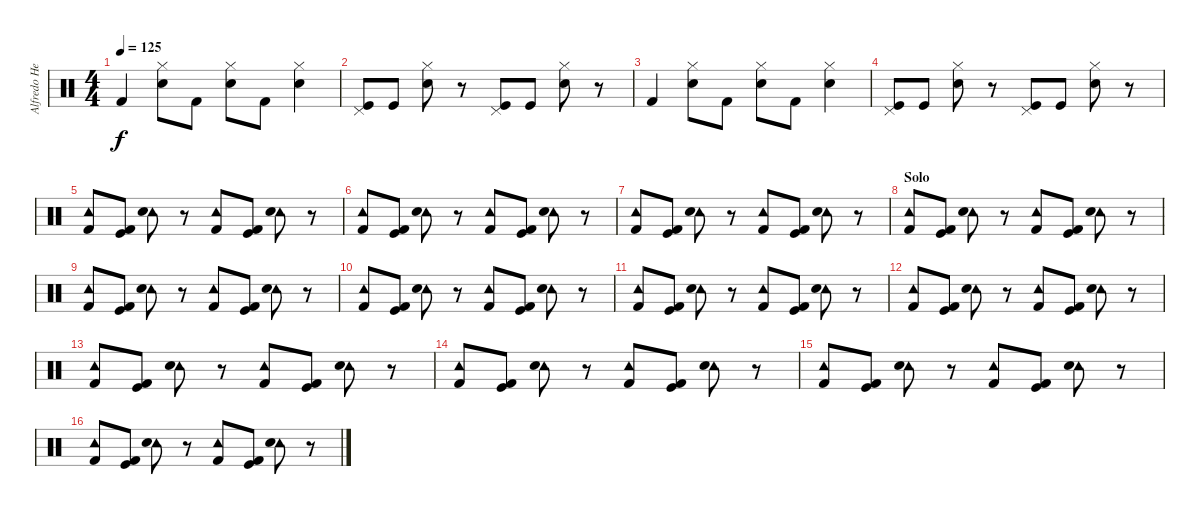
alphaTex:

\track ("Alfredo Hernandez (Drums)" "Alfredo He") {instrument percussion}
\staff {score}
\articulation defaults
\ts (4 4)
\tempo 125
\clef neutral
\ks c "Kick (hit) 2".4{dy f}
("Hi-Hat (closed)" "Electric Snare (hit)").8 "Kick (hit) 2".8 ("Hi-Hat (closed)" "Electric Snare (hit)").8 "Kick (hit) 2".8 ("Hi-Hat (closed)" "Electric Snare (hit)").4 |
("Kick (hit)" "Pedal Hi-Hat (hit)").8 "Kick (hit)".8 ("Hi-Hat (closed)" "Electric Snare (hit)").8 r.8 ("Kick (hit)" "Pedal Hi-Hat (hit)").8 "Kick (hit)".8 ("Hi-Hat (closed)" "Electric Snare (hit)").8 r.8 |
"Kick (hit) 2".4 ("Hi-Hat (closed)" "Electric Snare (hit)").8 "Kick (hit) 2".8 ("Hi-Hat (closed)" "Electric Snare (hit)").8 "Kick (hit) 2".8 ("Hi-Hat (closed)" "Electric Snare (hit)").4 |
("Kick (hit)" "Pedal Hi-Hat (hit)").8 "Kick (hit)".8 ("Hi-Hat (closed)" "Electric Snare (hit)").8 r.8 ("Kick (hit)" "Pedal Hi-Hat (hit)").8 "Kick (hit)".8 ("Hi-Hat (closed)" "Electric Snare (hit)").8 r.8 |
("Tambourine (hit)" "Kick (hit) 2").8 ("Kick (hit)" "Kick (hit) 2").8 ("Tambourine (hit)" "Electric Snare (hit)").8 r.8 ("Tambourine (hit)" "Kick (hit) 2").8 ("Kick (hit)" "Kick (hit) 2").8 ("Tambourine (hit)" "Electric Snare (hit)").8 r.8 |
("Tambourine (hit)" "Kick (hit) 2").8 ("Kick (hit)" "Kick (hit) 2").8 ("Tambourine (hit)" "Electric Snare (hit)").8 r.8 ("Tambourine (hit)" "Kick (hit) 2").8 ("Kick (hit)" "Kick (hit) 2").8 ("Tambourine (hit)" "Electric Snare (hit)").8 r.8 |
("Tambourine (hit)" "Kick (hit) 2").8 ("Kick (hit)" "Kick (hit) 2").8 ("Tambourine (hit)" "Electric Snare (hit)").8 r.8 ("Tambourine (hit)" "Kick (hit) 2").8 ("Kick (hit)" "Kick (hit) 2").8 ("Tambourine (hit)" "Electric Snare (hit)").8 r.8 |
\section ("" "Solo")
("Tambourine (hit)" "Kick (hit) 2").8 ("Kick (hit)" "Kick (hit) 2").8 ("Tambourine (hit)" "Electric Snare (hit)").8 r.8 ("Tambourine (hit)" "Kick (hit) 2").8 ("Kick (hit)" "Kick (hit) 2").8 ("Tambourine (hit)" "Electric Snare (hit)").8 r.8 |
("Tambourine (hit)" "Kick (hit) 2").8 ("Kick (hit)" "Kick (hit) 2").8 ("Tambourine (hit)" "Electric Snare (hit)").8 r.8 ("Tambourine (hit)" "Kick (hit) 2").8 ("Kick (hit)" "Kick (hit) 2").8 ("Tambourine (hit)" "Electric Snare (hit)").8 r.8 |
("Tambourine (hit)" "Kick (hit) 2").8 ("Kick (hit)" "Kick (hit) 2").8 ("Tambourine (hit)" "Electric Snare (hit)").8 r.8 ("Tambourine (hit)" "Kick (hit) 2").8 ("Kick (hit)" "Kick (hit) 2").8 ("Tambourine (hit)" "Electric Snare (hit)").8 r.8 |
("Tambourine (hit)" "Kick (hit) 2").8 ("Kick (hit)" "Kick (hit) 2").8 ("Tambourine (hit)" "Electric Snare (hit)").8 r.8 ("Tambourine (hit)" "Kick (hit) 2").8 ("Kick (hit)" "Kick (hit) 2").8 ("Tambourine (hit)" "Electric Snare (hit)").8 r.8 |
("Tambourine (hit)" "Kick (hit) 2").8 ("Kick (hit)" "Kick (hit) 2").8 ("Tambourine (hit)" "Electric Snare (hit)").8 r.8 ("Tambourine (hit)" "Kick (hit) 2").8 ("Kick (hit)" "Kick (hit) 2").8 ("Tambourine (hit)" "Electric Snare (hit)").8 r.8 |
("Tambourine (hit)" "Kick (hit) 2").8 ("Kick (hit)" "Kick (hit) 2").8 ("Tambourine (hit)" "Electric Snare (hit)").8 r.8 ("Tambourine (hit)" "Kick (hit) 2").8 ("Kick (hit)" "Kick (hit) 2").8 ("Tambourine (hit)" "Electric Snare (hit)").8 r.8 |
("Tambourine (hit)" "Kick (hit) 2").8 ("Kick (hit)" "Kick (hit) 2").8 ("Tambourine (hit)" "Electric Snare (hit)").8 r.8 ("Tambourine (hit)" "Kick (hit) 2").8 ("Kick (hit)" "Kick (hit) 2").8 ("Tambourine (hit)" "Electric Snare (hit)").8 r.8 |
("Tambourine (hit)" "Kick (hit) 2").8 ("Kick (hit)" "Kick (hit) 2").8 ("Tambourine (hit)" "Electric Snare (hit)").8 r.8 ("Tambourine (hit)" "Kick (hit) 2").8 ("Kick (hit)" "Kick (hit) 2").8 ("Tambourine (hit)" "Electric Snare (hit)").8 r.8 |
("Tambourine (hit)" "Kick (hit) 2").8 ("Kick (hit)" "Kick (hit) 2").8 ("Tambourine (hit)" "Electric Snare (hit)").8 r.8 ("Tambourine (hit)" "Kick (hit) 2").8 ("Kick (hit)" "Kick (hit) 2").8 ("Tambourine (hit)" "Electric Snare (hit)").8 r.8
